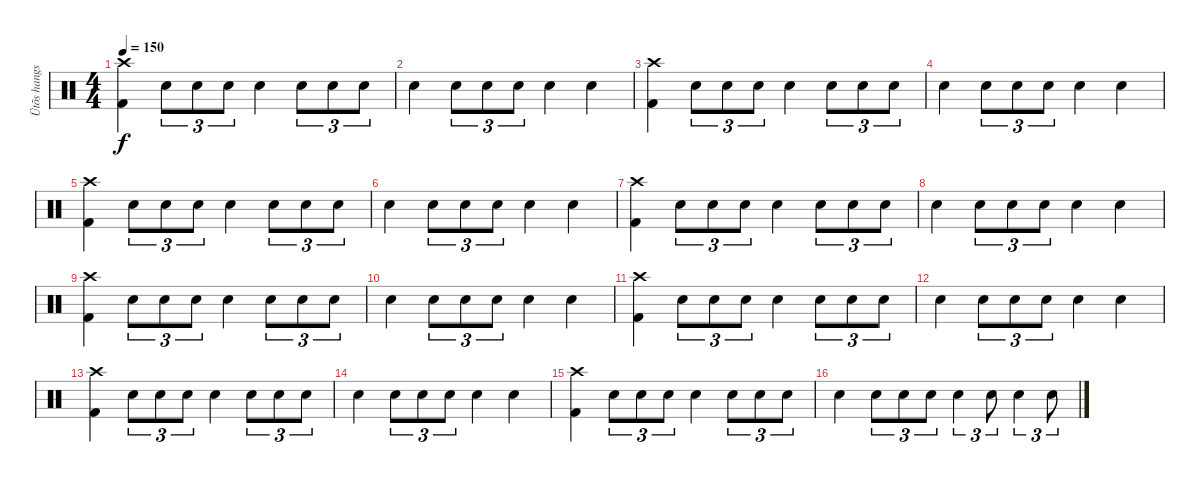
\track ("Ütõs hangszer" "Ütõs hangs") {instrument percussion}
\staff {score}
\articulation defaults
\ts (4 4)
\tempo 150
\clef neutral
\ks c
("Crash high (hit)" "Kick (hit) 2").4{dy f} "Electric Snare (hit)".8{tu (3 2)} "Electric Snare (hit)".8{tu (3 2)} "Electric Snare (hit)".8{tu (3 2)} "Electric Snare (hit)".4 "Electric Snare (hit)".8{tu (3 2)} "Electric Snare (hit)".8{tu (3 2)} "Electric Snare (hit)".8{tu (3 2)} |
"Electric Snare (hit)".4 "Electric Snare (hit)".8{tu (3 2)} "Electric Snare (hit)".8{tu (3 2)} "Electric Snare (hit)".8{tu (3 2)} "Electric Snare (hit)".4 "Electric Snare (hit)".4 |
("Crash high (hit)" "Kick (hit) 2").4 "Electric Snare (hit)".8{tu (3 2)} "Electric Snare (hit)".8{tu (3 2)} "Electric Snare (hit)".8{tu (3 2)} "Electric Snare (hit)".4 "Electric Snare (hit)".8{tu (3 2)} "Electric Snare (hit)".8{tu (3 2)} "Electric Snare (hit)".8{tu (3 2)} |
"Electric Snare (hit)".4 "Electric Snare (hit)".8{tu (3 2)} "Electric Snare (hit)".8{tu (3 2)} "Electric Snare (hit)".8{tu (3 2)} "Electric Snare (hit)".4 "Electric Snare (hit)".4 |
("Crash high (hit)" "Kick (hit) 2").4 "Electric Snare (hit)".8{tu (3 2)} "Electric Snare (hit)".8{tu (3 2)} "Electric Snare (hit)".8{tu (3 2)} "Electric Snare (hit)".4 "Electric Snare (hit)".8{tu (3 2)} "Electric Snare (hit)".8{tu (3 2)} "Electric Snare (hit)".8{tu (3 2)} |
"Electric Snare (hit)".4 "Electric Snare (hit)".8{tu (3 2)} "Electric Snare (hit)".8{tu (3 2)} "Electric Snare (hit)".8{tu (3 2)} "Electric Snare (hit)".4 "Electric Snare (hit)".4 |
("Crash high (hit)" "Kick (hit) 2").4 "Electric Snare (hit)".8{tu (3 2)} "Electric Snare (hit)".8{tu (3 2)} "Electric Snare (hit)".8{tu (3 2)} "Electric Snare (hit)".4 "Electric Snare (hit)".8{tu (3 2)} "Electric Snare (hit)".8{tu (3 2)} "Electric Snare (hit)".8{tu (3 2)} |
"Electric Snare (hit)".4 "Electric Snare (hit)".8{tu (3 2)} "Electric Snare (hit)".8{tu (3 2)} "Electric Snare (hit)".8{tu (3 2)} "Electric Snare (hit)".4 "Electric Snare (hit)".4 |
("Crash high (hit)" "Kick (hit) 2").4 "Electric Snare (hit)".8{tu (3 2)} "Electric Snare (hit)".8{tu (3 2)} "Electric Snare (hit)".8{tu (3 2)} "Electric Snare (hit)".4 "Electric Snare (hit)".8{tu (3 2)} "Electric Snare (hit)".8{tu (3 2)} "Electric Snare (hit)".8{tu (3 2)} |
"Electric Snare (hit)".4 "Electric Snare (hit)".8{tu (3 2)} "Electric Snare (hit)".8{tu (3 2)} "Electric Snare (hit)".8{tu (3 2)} "Electric Snare (hit)".4 "Electric Snare (hit)".4 |
("Crash high (hit)" "Kick (hit) 2").4 "Electric Snare (hit)".8{tu (3 2)} "Electric Snare (hit)".8{tu (3 2)} "Electric Snare (hit)".8{tu (3 2)} "Electric Snare (hit)".4 "Electric Snare (hit)".8{tu (3 2)} "Electric Snare (hit)".8{tu (3 2)} "Electric Snare (hit)".8{tu (3 2)} |
"Electric Snare (hit)".4 "Electric Snare (hit)".8{tu (3 2)} "Electric Snare (hit)".8{tu (3 2)} "Electric Snare (hit)".8{tu (3 2)} "Electric Snare (hit)".4 "Electric Snare (hit)".4 |
("Crash high (hit)" "Kick (hit) 2").4 "Electric Snare (hit)".8{tu (3 2)} "Electric Snare (hit)".8{tu (3 2)} "Electric Snare (hit)".8{tu (3 2)} "Electric Snare (hit)".4 "Electric Snare (hit)".8{tu (3 2)} "Electric Snare (hit)".8{tu (3 2)} "Electric Snare (hit)".8{tu (3 2)} |
"Electric Snare (hit)".4 "Electric Snare (hit)".8{tu (3 2)} "Electric Snare (hit)".8{tu (3 2)} "Electric Snare (hit)".8{tu (3 2)} "Electric Snare (hit)".4 "Electric Snare (hit)".4 |
("Crash high (hit)" "Kick (hit) 2").4 "Electric Snare (hit)".8{tu (3 2)} "Electric Snare (hit)".8{tu (3 2)} "Electric Snare (hit)".8{tu (3 2)} "Electric Snare (hit)".4 "Electric Snare (hit)".8{tu (3 2)} "Electric Snare (hit)".8{tu (3 2)} "Electric Snare (hit)".8{tu (3 2)} |
"Electric Snare (hit)".4 "Electric Snare (hit)".8{tu (3 2)} "Electric Snare (hit)".8{tu (3 2)} "Electric Snare (hit)".8{tu (3 2)} "Electric Snare (hit)".4{tu (3 2)} "Electric Snare (hit)".8{tu (3 2)} "Electric Snare (hit)".4{tu (3 2)} "Electric Snare (hit)".8{tu (3 2)}
